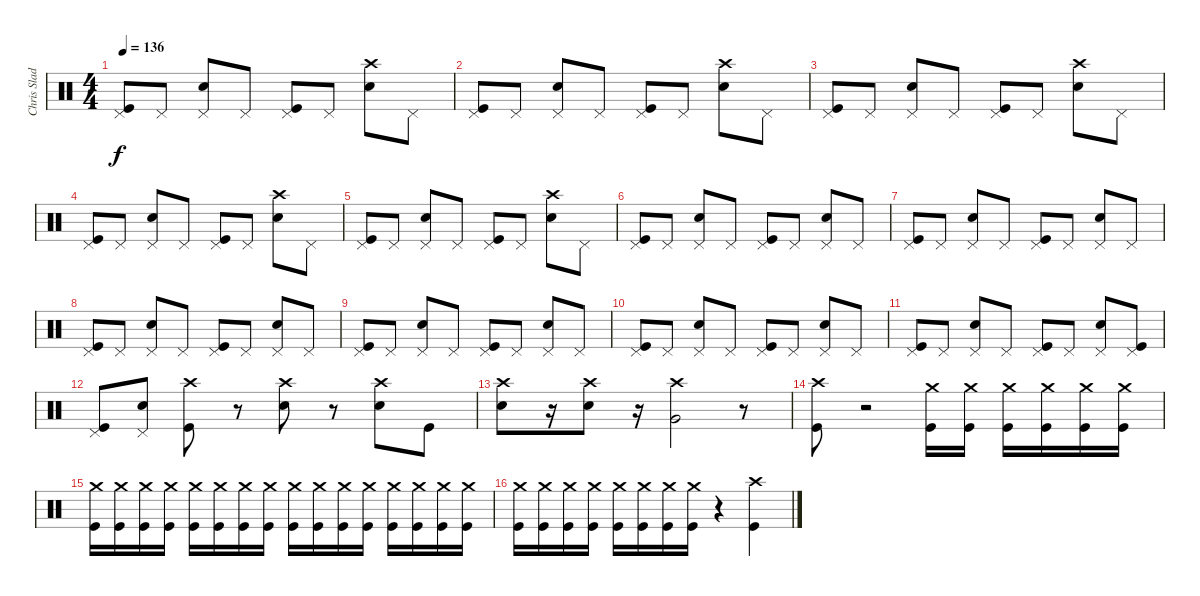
\track ("Chris Slade" "Chris Slad") {instrument percussion}
\staff {score}
\articulation defaults
\ts (4 4)
\tempo 136
\clef neutral
\ks c
("Pedal Hi-Hat (hit)" "Kick (hit)").8{dy f} "Pedal Hi-Hat (hit)".8 ("Pedal Hi-Hat (hit)" "Snare (hit) 2").8 "Pedal Hi-Hat (hit)".8 ("Pedal Hi-Hat (hit)" "Kick (hit)").8 "Pedal Hi-Hat (hit)".8 ("Crash high (hit)" "Snare (hit) 2").8 "Pedal Hi-Hat (hit)".8 |
("Pedal Hi-Hat (hit)" "Kick (hit)").8 "Pedal Hi-Hat (hit)".8 ("Pedal Hi-Hat (hit)" "Snare (hit) 2").8 "Pedal Hi-Hat (hit)".8 ("Pedal Hi-Hat (hit)" "Kick (hit)").8 "Pedal Hi-Hat (hit)".8 ("Crash high (hit)" "Snare (hit) 2").8 "Pedal Hi-Hat (hit)".8 |
("Pedal Hi-Hat (hit)" "Kick (hit)").8 "Pedal Hi-Hat (hit)".8 ("Pedal Hi-Hat (hit)" "Snare (hit) 2").8 "Pedal Hi-Hat (hit)".8 ("Pedal Hi-Hat (hit)" "Kick (hit)").8 "Pedal Hi-Hat (hit)".8 ("Crash high (hit)" "Snare (hit) 2").8 "Pedal Hi-Hat (hit)".8 |
("Pedal Hi-Hat (hit)" "Kick (hit)").8 "Pedal Hi-Hat (hit)".8 ("Pedal Hi-Hat (hit)" "Snare (hit) 2").8 "Pedal Hi-Hat (hit)".8 ("Pedal Hi-Hat (hit)" "Kick (hit)").8 "Pedal Hi-Hat (hit)".8 ("Crash high (hit)" "Snare (hit) 2").8 "Pedal Hi-Hat (hit)".8 |
("Pedal Hi-Hat (hit)" "Kick (hit)").8 "Pedal Hi-Hat (hit)".8 ("Pedal Hi-Hat (hit)" "Snare (hit) 2").8 "Pedal Hi-Hat (hit)".8 ("Pedal Hi-Hat (hit)" "Kick (hit)").8 "Pedal Hi-Hat (hit)".8 ("Crash high (hit)" "Snare (hit) 2").8 "Pedal Hi-Hat (hit)".8 |
("Pedal Hi-Hat (hit)" "Kick (hit)").8 "Pedal Hi-Hat (hit)".8 ("Pedal Hi-Hat (hit)" "Snare (hit) 2").8 "Pedal Hi-Hat (hit)".8 ("Pedal Hi-Hat (hit)" "Kick (hit)").8 "Pedal Hi-Hat (hit)".8 ("Pedal Hi-Hat (hit)" "Snare (hit) 2").8 "Pedal Hi-Hat (hit)".8 |
("Pedal Hi-Hat (hit)" "Kick (hit)").8 "Pedal Hi-Hat (hit)".8 ("Pedal Hi-Hat (hit)" "Snare (hit) 2").8 "Pedal Hi-Hat (hit)".8 ("Pedal Hi-Hat (hit)" "Kick (hit)").8 "Pedal Hi-Hat (hit)".8 ("Pedal Hi-Hat (hit)" "Snare (hit) 2").8 "Pedal Hi-Hat (hit)".8 |
("Pedal Hi-Hat (hit)" "Kick (hit)").8 "Pedal Hi-Hat (hit)".8 ("Pedal Hi-Hat (hit)" "Snare (hit) 2").8 "Pedal Hi-Hat (hit)".8 ("Pedal Hi-Hat (hit)" "Kick (hit)").8 "Pedal Hi-Hat (hit)".8 ("Pedal Hi-Hat (hit)" "Snare (hit) 2").8 "Pedal Hi-Hat (hit)".8 |
("Pedal Hi-Hat (hit)" "Kick (hit)").8 "Pedal Hi-Hat (hit)".8 ("Pedal Hi-Hat (hit)" "Snare (hit) 2").8 "Pedal Hi-Hat (hit)".8 ("Pedal Hi-Hat (hit)" "Kick (hit)").8 "Pedal Hi-Hat (hit)".8 ("Pedal Hi-Hat (hit)" "Snare (hit) 2").8 "Pedal Hi-Hat (hit)".8 |
("Pedal Hi-Hat (hit)" "Kick (hit)").8 "Pedal Hi-Hat (hit)".8 ("Pedal Hi-Hat (hit)" "Snare (hit) 2").8 "Pedal Hi-Hat (hit)".8 ("Pedal Hi-Hat (hit)" "Kick (hit)").8 "Pedal Hi-Hat (hit)".8 ("Pedal Hi-Hat (hit)" "Snare (hit) 2").8 "Pedal Hi-Hat (hit)".8 |
("Pedal Hi-Hat (hit)" "Kick (hit)").8 "Pedal Hi-Hat (hit)".8 ("Pedal Hi-Hat (hit)" "Snare (hit) 2").8 "Pedal Hi-Hat (hit)".8 ("Pedal Hi-Hat (hit)" "Kick (hit)").8 "Pedal Hi-Hat (hit)".8 ("Pedal Hi-Hat (hit)" "Snare (hit) 2").8 ("Pedal Hi-Hat (hit)" "Kick (hit)").8 |
("Pedal Hi-Hat (hit)" "Kick (hit)").8 ("Pedal Hi-Hat (hit)" "Snare (hit) 2").8 ("Crash high (hit)" "Kick (hit)").8 r.8 ("Crash high (hit)" "Snare (hit) 2").8 r.8 ("Crash high (hit)" "Snare (hit) 2").8 "Kick (hit)".8 |
("Crash high (hit)" "Electric Snare (hit)").8 r.16 ("Crash high (hit)" "Snare (hit) 2").8 r.16 ("Crash high (hit)" "Very Low Tom (hit)").2 r.8 |
("Crash high (hit)" "Kick (hit)").8 r.2{volume 0} ("Crash medium (hit)" "Kick (hit)").16{volume 14} ("Crash medium (hit)" "Kick (hit)").16 ("Crash medium (hit)" "Kick (hit)").16 ("Crash medium (hit)" "Kick (hit)").16 ("Crash medium (hit)" "Kick (hit)").16 ("Crash medium (hit)" "Kick (hit)").16 |
("Crash medium (hit)" "Kick (hit)").16 ("Crash medium (hit)" "Kick (hit)").16 ("Crash medium (hit)" "Kick (hit)").16 ("Crash medium (hit)" "Kick (hit)").16 ("Crash medium (hit)" "Kick (hit)").16 ("Crash medium (hit)" "Kick (hit)").16 ("Crash medium (hit)" "Kick (hit)").16 ("Crash medium (hit)" "Kick (hit)").16 ("Crash medium (hit)" "Kick (hit)").16 ("Crash medium (hit)" "Kick (hit)").16 ("Crash medium (hit)" "Kick (hit)").16 ("Crash medium (hit)" "Kick (hit)").16 ("Crash medium (hit)" "Kick (hit)").16 ("Crash medium (hit)" "Kick (hit)").16 ("Crash medium (hit)" "Kick (hit)").16 ("Crash medium (hit)" "Kick (hit)").16 |
("Crash medium (hit)" "Kick (hit)").16 ("Crash medium (hit)" "Kick (hit)").16 ("Crash medium (hit)" "Kick (hit)").16 ("Crash medium (hit)" "Kick (hit)").16 ("Crash medium (hit)" "Kick (hit)").16 ("Crash medium (hit)" "Kick (hit)").16 ("Crash medium (hit)" "Kick (hit)").16 ("Crash medium (hit)" "Kick (hit)").16 r.4 ("Crash high (hit)" "Kick (hit)").4
